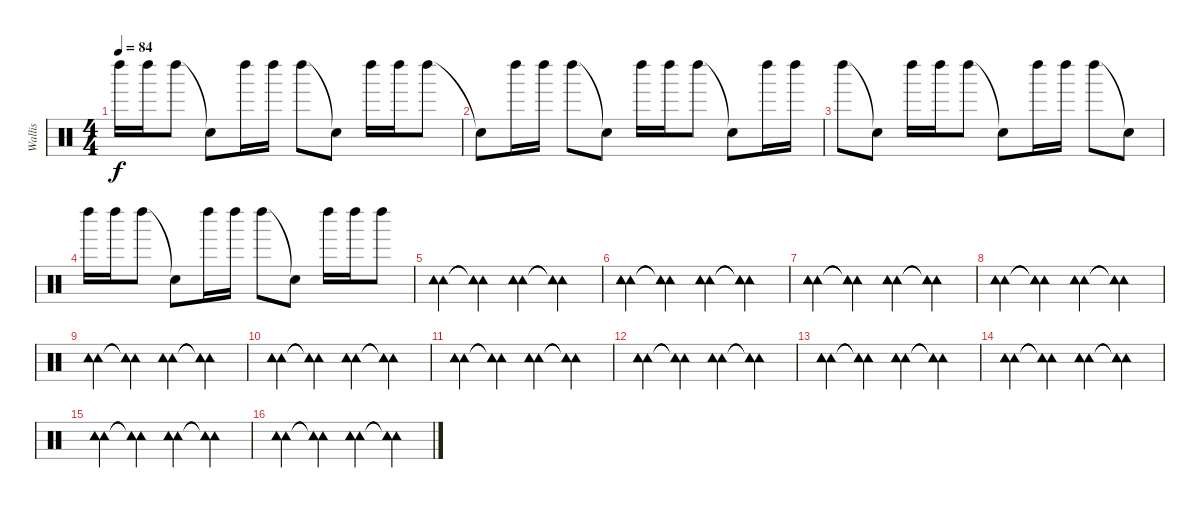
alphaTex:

\track ("Wallis" "Wallis") {instrument percussion}
\staff {score}
\articulation defaults
\ts (4 4)
\tempo 84
\clef neutral
\ks c "Left Maraca (hit)".16{dy f} "Left Maraca (hit)".16 "Left Maraca (hit)".8 "Snare (hit)"{t}.8 "Left Maraca (hit)".16 "Left Maraca (hit)".16 "Left Maraca (hit)".8 "Snare (hit)"{t}.8 "Left Maraca (hit)".16 "Left Maraca (hit)".16 "Left Maraca (hit)".8
|
"Snare (hit)"{t}.8 "Left Maraca (hit)".16 "Left Maraca (hit)".16 "Left Maraca (hit)".8 "Snare (hit)"{t}.8 "Left Maraca (hit)".16 "Left Maraca (hit)".16 "Left Maraca (hit)".8 "Snare (hit)"{t}.8 "Left Maraca (hit)".16 "Left Maraca (hit)".16 |
"Left Maraca (hit)".8 "Snare (hit)"{t}.8 "Left Maraca (hit)".16 "Left Maraca (hit)".16 "Left Maraca (hit)".8 "Snare (hit)"{t}.8 "Left Maraca (hit)".16 "Left Maraca (hit)".16 "Left Maraca (hit)".8 "Snare (hit)"{t}.8 |
"Left Maraca (hit)".16 "Left Maraca (hit)".16 "Left Maraca (hit)".8 "Snare (hit)"{t}.8 "Left Maraca (hit)".16 "Left Maraca (hit)".16 "Left Maraca (hit)".8 "Snare (hit)"{t}.8 "Left Maraca (hit)".16 "Left Maraca (hit)".16 "Left Maraca (hit)".8 |
("Tambourine (hit)" "Tambourine (hit)" "Tambourine (hit)").4 ("Tambourine (hit)"{t} "Tambourine (hit)"{t} "Tambourine (hit)"{t}).4 ("Tambourine (hit)" "Tambourine (hit)" "Tambourine (hit)").4 ("Tambourine (hit)"{t} "Tambourine (hit)"{t} "Tambourine (hit)"{t}).4 |
("Tambourine (hit)" "Tambourine (hit)" "Tambourine (hit)").4 ("Tambourine (hit)"{t} "Tambourine (hit)"{t} "Tambourine (hit)"{t}).4 ("Tambourine (hit)" "Tambourine (hit)" "Tambourine (hit)").4 ("Tambourine (hit)"{t} "Tambourine (hit)"{t} "Tambourine (hit)"{t}).4 |
("Tambourine (hit)" "Tambourine (hit)" "Tambourine (hit)").4 ("Tambourine (hit)"{t} "Tambourine (hit)"{t} "Tambourine (hit)"{t}).4 ("Tambourine (hit)" "Tambourine (hit)" "Tambourine (hit)").4 ("Tambourine (hit)"{t} "Tambourine (hit)"{t} "Tambourine (hit)"{t}).4 |
("Tambourine (hit)" "Tambourine (hit)" "Tambourine (hit)").4 ("Tambourine (hit)"{t} "Tambourine (hit)"{t} "Tambourine (hit)"{t}).4 ("Tambourine (hit)" "Tambourine (hit)" "Tambourine (hit)").4 ("Tambourine (hit)"{t} "Tambourine (hit)"{t} "Tambourine (hit)"{t}).4 |
("Tambourine (hit)" "Tambourine (hit)" "Tambourine (hit)").4 ("Tambourine (hit)"{t} "Tambourine (hit)"{t} "Tambourine (hit)"{t}).4 ("Tambourine (hit)" "Tambourine (hit)" "Tambourine (hit)").4 ("Tambourine (hit)"{t} "Tambourine (hit)"{t} "Tambourine (hit)"{t}).4 |
("Tambourine (hit)" "Tambourine (hit)" "Tambourine (hit)").4 ("Tambourine (hit)"{t} "Tambourine (hit)"{t} "Tambourine (hit)"{t}).4 ("Tambourine (hit)" "Tambourine (hit)" "Tambourine (hit)").4 ("Tambourine (hit)"{t} "Tambourine (hit)"{t} "Tambourine (hit)"{t}).4 |
("Tambourine (hit)" "Tambourine (hit)" "Tambourine (hit)").4 ("Tambourine (hit)"{t} "Tambourine (hit)"{t} "Tambourine (hit)"{t}).4 ("Tambourine (hit)" "Tambourine (hit)" "Tambourine (hit)").4 ("Tambourine (hit)"{t} "Tambourine (hit)"{t} "Tambourine (hit)"{t}).4 |
("Tambourine (hit)" "Tambourine (hit)" "Tambourine (hit)").4 ("Tambourine (hit)"{t} "Tambourine (hit)"{t} "Tambourine (hit)"{t}).4 ("Tambourine (hit)" "Tambourine (hit)" "Tambourine (hit)").4 ("Tambourine (hit)"{t} "Tambourine (hit)"{t} "Tambourine (hit)"{t}).4 |
("Tambourine (hit)" "Tambourine (hit)" "Tambourine (hit)").4 ("Tambourine (hit)"{t} "Tambourine (hit)"{t} "Tambourine (hit)"{t}).4 ("Tambourine (hit)" "Tambourine (hit)" "Tambourine (hit)").4 ("Tambourine (hit)"{t} "Tambourine (hit)"{t} "Tambourine (hit)"{t}).4 |
("Tambourine (hit)" "Tambourine (hit)" "Tambourine (hit)").4 ("Tambourine (hit)"{t} "Tambourine (hit)"{t} "Tambourine (hit)"{t}).4 ("Tambourine (hit)" "Tambourine (hit)" "Tambourine (hit)").4 ("Tambourine (hit)"{t} "Tambourine (hit)"{t} "Tambourine (hit)"{t}).4 |
("Tambourine (hit)" "Tambourine (hit)" "Tambourine (hit)").4 ("Tambourine (hit)"{t} "Tambourine (hit)"{t} "Tambourine (hit)"{t}).4 ("Tambourine (hit)" "Tambourine (hit)" "Tambourine (hit)").4 ("Tambourine (hit)"{t} "Tambourine (hit)"{t} "Tambourine (hit)"{t}).4 |
("Tambourine (hit)" "Tambourine (hit)" "Tambourine (hit)").4 ("Tambourine (hit)"{t} "Tambourine (hit)"{t} "Tambourine (hit)"{t}).4 ("Tambourine (hit)" "Tambourine (hit)" "Tambourine (hit)").4 ("Tambourine (hit)"{t} "Tambourine (hit)"{t} "Tambourine (hit)"{t}).4
